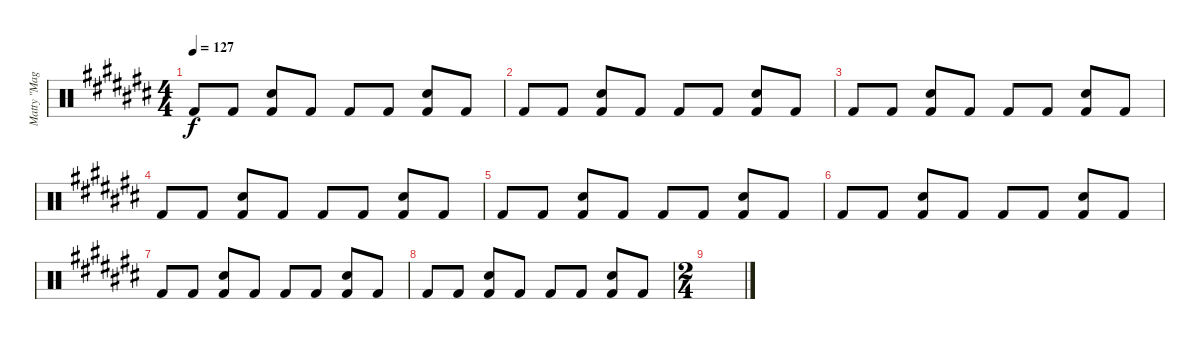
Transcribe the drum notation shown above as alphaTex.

\track ("Matty \"Magic\" Datsun (Drums)" "Matty \"Mag") {instrument percussion}
\staff {score}
\articulation defaults
\ts (4 4)
\tempo 127
\clef neutral
\ks a#minor "Kick (hit) 2".8{dy f} "Kick (hit) 2".8
("Kick (hit) 2" "Electric Snare (hit)").8 "Kick (hit) 2".8 "Kick (hit) 2".8 "Kick (hit) 2".8 ("Kick (hit) 2" "Electric Snare (hit)").8 "Kick (hit) 2".8 |
"Kick (hit) 2".8 "Kick (hit) 2".8 ("Kick (hit) 2" "Electric Snare (hit)").8 "Kick (hit) 2".8 "Kick (hit) 2".8 "Kick (hit) 2".8 ("Kick (hit) 2" "Electric Snare (hit)").8 "Kick (hit) 2".8 |
"Kick (hit) 2".8 "Kick (hit) 2".8 ("Kick (hit) 2" "Electric Snare (hit)").8 "Kick (hit) 2".8 "Kick (hit) 2".8 "Kick (hit) 2".8 ("Kick (hit) 2" "Electric Snare (hit)").8 "Kick (hit) 2".8 |
"Kick (hit) 2".8 "Kick (hit) 2".8 ("Kick (hit) 2" "Electric Snare (hit)").8 "Kick (hit) 2".8 "Kick (hit) 2".8 "Kick (hit) 2".8 ("Kick (hit) 2" "Electric Snare (hit)").8 "Kick (hit) 2".8 |
"Kick (hit) 2".8 "Kick (hit) 2".8 ("Kick (hit) 2" "Electric Snare (hit)").8 "Kick (hit) 2".8 "Kick (hit) 2".8 "Kick (hit) 2".8 ("Kick (hit) 2" "Electric Snare (hit)").8 "Kick (hit) 2".8 |
"Kick (hit) 2".8 "Kick (hit) 2".8 ("Kick (hit) 2" "Electric Snare (hit)").8 "Kick (hit) 2".8 "Kick (hit) 2".8 "Kick (hit) 2".8 ("Kick (hit) 2" "Electric Snare (hit)").8 "Kick (hit) 2".8 |
"Kick (hit) 2".8 "Kick (hit) 2".8 ("Kick (hit) 2" "Electric Snare (hit)").8 "Kick (hit) 2".8 "Kick (hit) 2".8 "Kick (hit) 2".8 ("Kick (hit) 2" "Electric Snare (hit)").8 "Kick (hit) 2".8 |
"Kick (hit) 2".8 "Kick (hit) 2".8 ("Kick (hit) 2" "Electric Snare (hit)").8 "Kick (hit) 2".8 "Kick (hit) 2".8 "Kick (hit) 2".8 ("Kick (hit) 2" "Electric Snare (hit)").8 "Kick (hit) 2".8 |
\ts (2 4)
